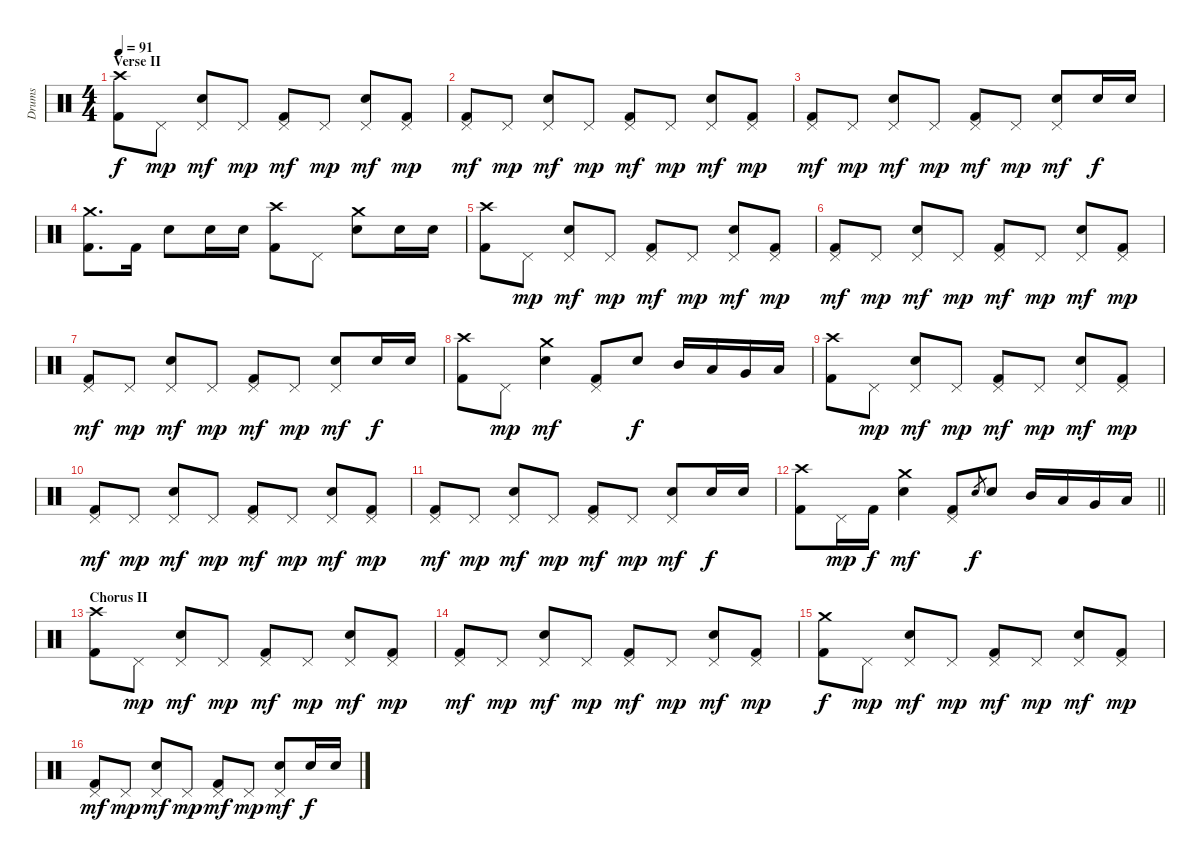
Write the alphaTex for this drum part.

\track ("Drums" "Drums") {instrument percussion}
\staff {score}
\articulation defaults
\ts (4 4)
\section ("" "Verse II")
\tempo 91
\clef neutral
\ks c
("Crash high (hit)" "Kick (hit) 2").8{dy f} "Pedal Hi-Hat (hit)".8{dy mp} ("Pedal Hi-Hat (hit)" "Snare (hit) 2").8{dy mf} "Pedal Hi-Hat (hit)".8{dy mp} ("Pedal Hi-Hat (hit)" "Kick (hit) 2").8{dy mf} "Pedal Hi-Hat (hit)".8{dy mp} ("Pedal Hi-Hat (hit)" "Snare (hit) 2").8{dy mf} ("Pedal Hi-Hat (hit)" "Kick (hit) 2").8{dy mp} |
("Pedal Hi-Hat (hit)" "Kick (hit) 2").8{dy mf} "Pedal Hi-Hat (hit)".8{dy mp} ("Pedal Hi-Hat (hit)" "Snare (hit) 2").8{dy mf} "Pedal Hi-Hat (hit)".8{dy mp} ("Pedal Hi-Hat (hit)" "Kick (hit) 2").8{dy mf} "Pedal Hi-Hat (hit)".8{dy mp} ("Pedal Hi-Hat (hit)" "Snare (hit) 2").8{dy mf} ("Pedal Hi-Hat (hit)" "Kick (hit) 2").8{dy mp} |
("Pedal Hi-Hat (hit)" "Kick (hit) 2").8{dy mf} "Pedal Hi-Hat (hit)".8{dy mp} ("Pedal Hi-Hat (hit)" "Snare (hit) 2").8{dy mf} "Pedal Hi-Hat (hit)".8{dy mp} ("Pedal Hi-Hat (hit)" "Kick (hit) 2").8{dy mf} "Pedal Hi-Hat (hit)".8{dy mp} ("Pedal Hi-Hat (hit)" "Snare (hit) 2").8{dy mf} "Snare (hit) 2".16{dy f} "Snare (hit) 2".16 |
("Crash medium (hit)" "Kick (hit) 2").8{d} "Kick (hit) 2".16 "Snare (hit) 2".8 "Snare (hit) 2".16 "Snare (hit) 2".16 ("Crash high (hit)" "Kick (hit) 2").8 "Pedal Hi-Hat (hit)".8 ("Crash medium (hit)" "Snare (hit) 2").8 "Snare (hit) 2".16 "Snare (hit) 2".16 |
("Crash high (hit)" "Kick (hit) 2").8 "Pedal Hi-Hat (hit)".8{dy mp} ("Pedal Hi-Hat (hit)" "Snare (hit) 2").8{dy mf} "Pedal Hi-Hat (hit)".8{dy mp} ("Pedal Hi-Hat (hit)" "Kick (hit) 2").8{dy mf} "Pedal Hi-Hat (hit)".8{dy mp} ("Pedal Hi-Hat (hit)" "Snare (hit) 2").8{dy mf} ("Pedal Hi-Hat (hit)" "Kick (hit) 2").8{dy mp} |
("Pedal Hi-Hat (hit)" "Kick (hit) 2").8{dy mf} "Pedal Hi-Hat (hit)".8{dy mp} ("Pedal Hi-Hat (hit)" "Snare (hit) 2").8{dy mf} "Pedal Hi-Hat (hit)".8{dy mp} ("Pedal Hi-Hat (hit)" "Kick (hit) 2").8{dy mf} "Pedal Hi-Hat (hit)".8{dy mp} ("Pedal Hi-Hat (hit)" "Snare (hit) 2").8{dy mf} ("Pedal Hi-Hat (hit)" "Kick (hit) 2").8{dy mp} |
("Pedal Hi-Hat (hit)" "Kick (hit) 2").8{dy mf} "Pedal Hi-Hat (hit)".8{dy mp} ("Pedal Hi-Hat (hit)" "Snare (hit) 2").8{dy mf} "Pedal Hi-Hat (hit)".8{dy mp} ("Pedal Hi-Hat (hit)" "Kick (hit) 2").8{dy mf} "Pedal Hi-Hat (hit)".8{dy mp} ("Pedal Hi-Hat (hit)" "Snare (hit) 2").8{dy mf} "Snare (hit) 2".16{dy f} "Snare (hit) 2".16 |
("Crash high (hit)" "Kick (hit) 2").8 "Pedal Hi-Hat (hit)".8{dy mp} ("Crash medium (hit)" "Snare (hit) 2").4{dy mf} ("Pedal Hi-Hat (hit)" "Kick (hit) 2").8 "Snare (hit) 2".8{dy f} "Mid Tom (hit)".16 "Low Tom (hit)".16 "Very Low Tom (hit)".16 "Low Floor Tom (hit)".16 |
("Crash high (hit)" "Kick (hit) 2").8 "Pedal Hi-Hat (hit)".8{dy mp} ("Pedal Hi-Hat (hit)" "Snare (hit) 2").8{dy mf} "Pedal Hi-Hat (hit)".8{dy mp} ("Pedal Hi-Hat (hit)" "Kick (hit) 2").8{dy mf} "Pedal Hi-Hat (hit)".8{dy mp} ("Pedal Hi-Hat (hit)" "Snare (hit) 2").8{dy mf} ("Pedal Hi-Hat (hit)" "Kick (hit) 2").8{dy mp} |
("Pedal Hi-Hat (hit)" "Kick (hit) 2").8{dy mf} "Pedal Hi-Hat (hit)".8{dy mp} ("Pedal Hi-Hat (hit)" "Snare (hit) 2").8{dy mf} "Pedal Hi-Hat (hit)".8{dy mp} ("Pedal Hi-Hat (hit)" "Kick (hit) 2").8{dy mf} "Pedal Hi-Hat (hit)".8{dy mp} ("Pedal Hi-Hat (hit)" "Snare (hit) 2").8{dy mf} ("Pedal Hi-Hat (hit)" "Kick (hit) 2").8{dy mp} |
("Pedal Hi-Hat (hit)" "Kick (hit) 2").8{dy mf} "Pedal Hi-Hat (hit)".8{dy mp} ("Pedal Hi-Hat (hit)" "Snare (hit) 2").8{dy mf} "Pedal Hi-Hat (hit)".8{dy mp} ("Pedal Hi-Hat (hit)" "Kick (hit) 2").8{dy mf} "Pedal Hi-Hat (hit)".8{dy mp} ("Pedal Hi-Hat (hit)" "Snare (hit) 2").8{dy mf} "Snare (hit) 2".16{dy f} "Snare (hit) 2".16 |
\barLineRight lightlight
("Crash high (hit)" "Kick (hit) 2").8 "Pedal Hi-Hat (hit)".16{dy mp} "Kick (hit) 2".16{dy f} ("Crash medium (hit)" "Snare (hit) 2").4{dy mf} ("Pedal Hi-Hat (hit)" "Kick (hit) 2").8 "Snare (hit) 2".8{gr dy f} "Snare (hit) 2".8 "Mid Tom (hit)".16 "Low Tom (hit)".16 "Very Low Tom (hit)".16 "Low Floor Tom (hit)".16 |
\section ("" "Chorus II")
("Crash high (hit)" "Kick (hit) 2").8 "Pedal Hi-Hat (hit)".8{dy mp} ("Pedal Hi-Hat (hit)" "Snare (hit) 2").8{dy mf} "Pedal Hi-Hat (hit)".8{dy mp} ("Pedal Hi-Hat (hit)" "Kick (hit) 2").8{dy mf} "Pedal Hi-Hat (hit)".8{dy mp} ("Pedal Hi-Hat (hit)" "Snare (hit) 2").8{dy mf} ("Pedal Hi-Hat (hit)" "Kick (hit) 2").8{dy mp} |
("Pedal Hi-Hat (hit)" "Kick (hit) 2").8{dy mf} "Pedal Hi-Hat (hit)".8{dy mp} ("Pedal Hi-Hat (hit)" "Snare (hit) 2").8{dy mf} "Pedal Hi-Hat (hit)".8{dy mp} ("Pedal Hi-Hat (hit)" "Kick (hit) 2").8{dy mf} "Pedal Hi-Hat (hit)".8{dy mp} ("Pedal Hi-Hat (hit)" "Snare (hit) 2").8{dy mf} ("Pedal Hi-Hat (hit)" "Kick (hit) 2").8{dy mp} |
("Crash medium (hit)" "Kick (hit) 2").8{dy f} "Pedal Hi-Hat (hit)".8{dy mp} ("Pedal Hi-Hat (hit)" "Snare (hit) 2").8{dy mf} "Pedal Hi-Hat (hit)".8{dy mp} ("Pedal Hi-Hat (hit)" "Kick (hit) 2").8{dy mf} "Pedal Hi-Hat (hit)".8{dy mp} ("Pedal Hi-Hat (hit)" "Snare (hit) 2").8{dy mf} ("Pedal Hi-Hat (hit)" "Kick (hit) 2").8{dy mp} |
("Pedal Hi-Hat (hit)" "Kick (hit) 2").8{dy mf} "Pedal Hi-Hat (hit)".8{dy mp} ("Pedal Hi-Hat (hit)" "Snare (hit) 2").8{dy mf} "Pedal Hi-Hat (hit)".8{dy mp} ("Pedal Hi-Hat (hit)" "Kick (hit) 2").8{dy mf} "Pedal Hi-Hat (hit)".8{dy mp} ("Pedal Hi-Hat (hit)" "Snare (hit) 2").8{dy mf} "Snare (hit) 2".16{dy f} "Snare (hit) 2".16
